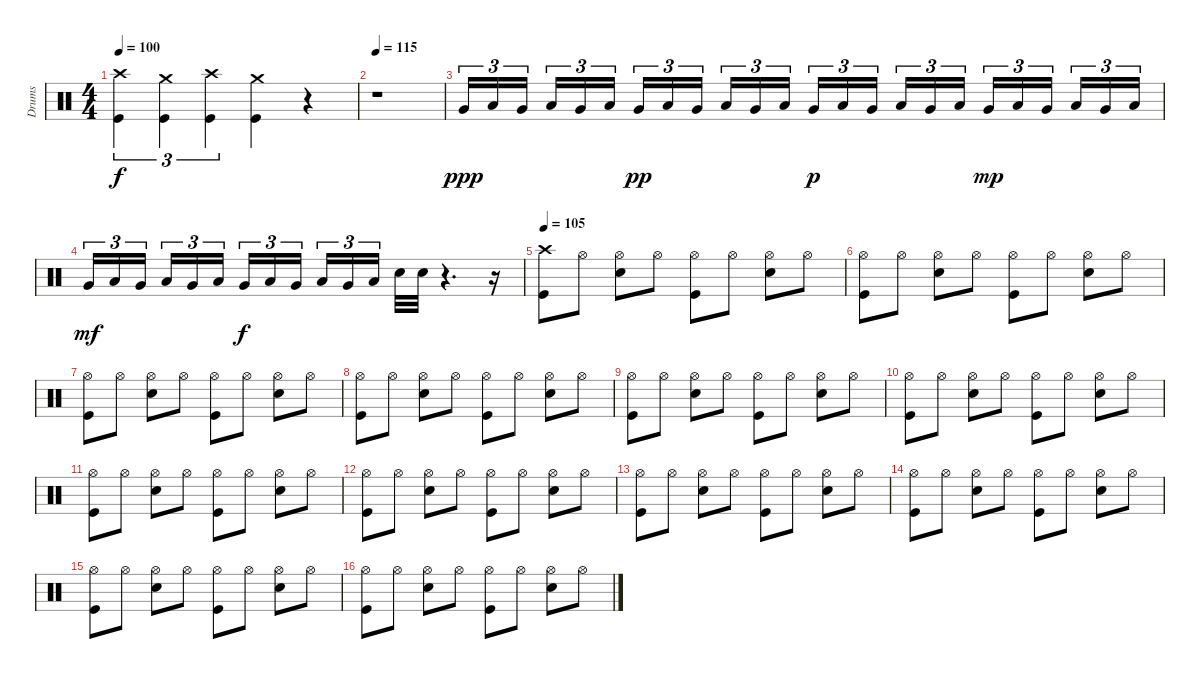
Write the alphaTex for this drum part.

\track ("Drums" "Drums") {instrument percussion}
\staff {score}
\articulation defaults
\ts (4 4)
\tempo 100
\clef neutral
\ks c
("Crash high (hit)" "Kick (hit)").4{tu (3 2) dy f} ("Crash medium (hit)" "Kick (hit)").4{tu (3 2)} ("Crash high (hit)" "Kick (hit)").4{tu (3 2)} ("Crash medium (hit)" "Kick (hit)").4 r.4 |
\tempo 115
r.1 |
"Very Low Tom (hit)".16{tu (3 2) dy ppp} "Low Floor Tom (hit)".16{tu (3 2)} "Very Low Tom (hit)".16{tu (3 2)} "Low Floor Tom (hit)".16{tu (3 2)} "Very Low Tom (hit)".16{tu (3 2)} "Low Floor Tom (hit)".16{tu (3 2)} "Very Low Tom (hit)".16{tu (3 2) dy pp} "Low Floor Tom (hit)".16{tu (3 2)} "Very Low Tom (hit)".16{tu (3 2)} "Low Floor Tom (hit)".16{tu (3 2)} "Very Low Tom (hit)".16{tu (3 2)} "Low Floor Tom (hit)".16{tu (3 2)} "Very Low Tom (hit)".16{tu (3 2) dy p} "Low Floor Tom (hit)".16{tu (3 2)} "Very Low Tom (hit)".16{tu (3 2)} "Low Floor Tom (hit)".16{tu (3 2)} "Very Low Tom (hit)".16{tu (3 2)} "Low Floor Tom (hit)".16{tu (3 2)} "Very Low Tom (hit)".16{tu (3 2) dy mp} "Low Floor Tom (hit)".16{tu (3 2)} "Very Low Tom (hit)".16{tu (3 2)} "Low Floor Tom (hit)".16{tu (3 2)} "Very Low Tom (hit)".16{tu (3 2)} "Low Floor Tom (hit)".16{tu (3 2)} |
"Very Low Tom (hit)".16{tu (3 2) dy mf} "Low Floor Tom (hit)".16{tu (3 2)} "Very Low Tom (hit)".16{tu (3 2)} "Low Floor Tom (hit)".16{tu (3 2)} "Very Low Tom (hit)".16{tu (3 2)} "Low Floor Tom (hit)".16{tu (3 2)} "Very Low Tom (hit)".16{tu (3 2) dy f} "Low Floor Tom (hit)".16{tu (3 2)} "Very Low Tom (hit)".16{tu (3 2)} "Low Floor Tom (hit)".16{tu (3 2)} "Very Low Tom (hit)".16{tu (3 2)} "Low Floor Tom (hit)".16{tu (3 2)} "Snare (hit) 2".32 "Snare (hit) 2".32 r.4{d} r.16 |
\tempo 105
("Crash high (hit)" "Kick (hit)").8 "Hi-Hat (open)".8 ("Hi-Hat (open)" "Snare (hit) 2").8 "Hi-Hat (open)".8 ("Hi-Hat (open)" "Kick (hit)").8 "Hi-Hat (open)".8 ("Hi-Hat (open)" "Snare (hit) 2").8 "Hi-Hat (open)".8 |
("Hi-Hat (open)" "Kick (hit)").8 "Hi-Hat (open)".8 ("Hi-Hat (open)" "Snare (hit) 2").8 "Hi-Hat (open)".8 ("Hi-Hat (open)" "Kick (hit)").8 "Hi-Hat (open)".8 ("Hi-Hat (open)" "Snare (hit) 2").8 "Hi-Hat (open)".8 |
("Hi-Hat (open)" "Kick (hit)").8 "Hi-Hat (open)".8 ("Hi-Hat (open)" "Snare (hit) 2").8 "Hi-Hat (open)".8 ("Hi-Hat (open)" "Kick (hit)").8 "Hi-Hat (open)".8 ("Hi-Hat (open)" "Snare (hit) 2").8 "Hi-Hat (open)".8 |
("Hi-Hat (open)" "Kick (hit)").8 "Hi-Hat (open)".8 ("Hi-Hat (open)" "Snare (hit) 2").8 "Hi-Hat (open)".8 ("Hi-Hat (open)" "Kick (hit)").8 "Hi-Hat (open)".8 ("Hi-Hat (open)" "Snare (hit) 2").8 "Hi-Hat (open)".8 |
("Hi-Hat (open)" "Kick (hit)").8 "Hi-Hat (open)".8 ("Hi-Hat (open)" "Snare (hit) 2").8 "Hi-Hat (open)".8 ("Hi-Hat (open)" "Kick (hit)").8 "Hi-Hat (open)".8 ("Hi-Hat (open)" "Snare (hit) 2").8 "Hi-Hat (open)".8 |
("Hi-Hat (open)" "Kick (hit)").8 "Hi-Hat (open)".8 ("Hi-Hat (open)" "Snare (hit) 2").8 "Hi-Hat (open)".8 ("Hi-Hat (open)" "Kick (hit)").8 "Hi-Hat (open)".8 ("Hi-Hat (open)" "Snare (hit) 2").8 "Hi-Hat (open)".8 |
("Hi-Hat (open)" "Kick (hit)").8 "Hi-Hat (open)".8 ("Hi-Hat (open)" "Snare (hit) 2").8 "Hi-Hat (open)".8 ("Hi-Hat (open)" "Kick (hit)").8 "Hi-Hat (open)".8 ("Hi-Hat (open)" "Snare (hit) 2").8 "Hi-Hat (open)".8 |
("Hi-Hat (open)" "Kick (hit)").8 "Hi-Hat (open)".8 ("Hi-Hat (open)" "Snare (hit) 2").8 "Hi-Hat (open)".8 ("Hi-Hat (open)" "Kick (hit)").8 "Hi-Hat (open)".8 ("Hi-Hat (open)" "Snare (hit) 2").8 "Hi-Hat (open)".8 |
("Hi-Hat (open)" "Kick (hit)").8 "Hi-Hat (open)".8 ("Hi-Hat (open)" "Snare (hit) 2").8 "Hi-Hat (open)".8 ("Hi-Hat (open)" "Kick (hit)").8 "Hi-Hat (open)".8 ("Hi-Hat (open)" "Snare (hit) 2").8 "Hi-Hat (open)".8 |
("Hi-Hat (open)" "Kick (hit)").8 "Hi-Hat (open)".8 ("Hi-Hat (open)" "Snare (hit) 2").8 "Hi-Hat (open)".8 ("Hi-Hat (open)" "Kick (hit)").8 "Hi-Hat (open)".8 ("Hi-Hat (open)" "Snare (hit) 2").8 "Hi-Hat (open)".8 |
("Hi-Hat (open)" "Kick (hit)").8 "Hi-Hat (open)".8 ("Hi-Hat (open)" "Snare (hit) 2").8 "Hi-Hat (open)".8 ("Hi-Hat (open)" "Kick (hit)").8 "Hi-Hat (open)".8 ("Hi-Hat (open)" "Snare (hit) 2").8 "Hi-Hat (open)".8 |
("Hi-Hat (open)" "Kick (hit)").8 "Hi-Hat (open)".8 ("Hi-Hat (open)" "Snare (hit) 2").8 "Hi-Hat (open)".8 ("Hi-Hat (open)" "Kick (hit)").8 "Hi-Hat (open)".8 ("Hi-Hat (open)" "Snare (hit) 2").8 "Hi-Hat (open)".8
